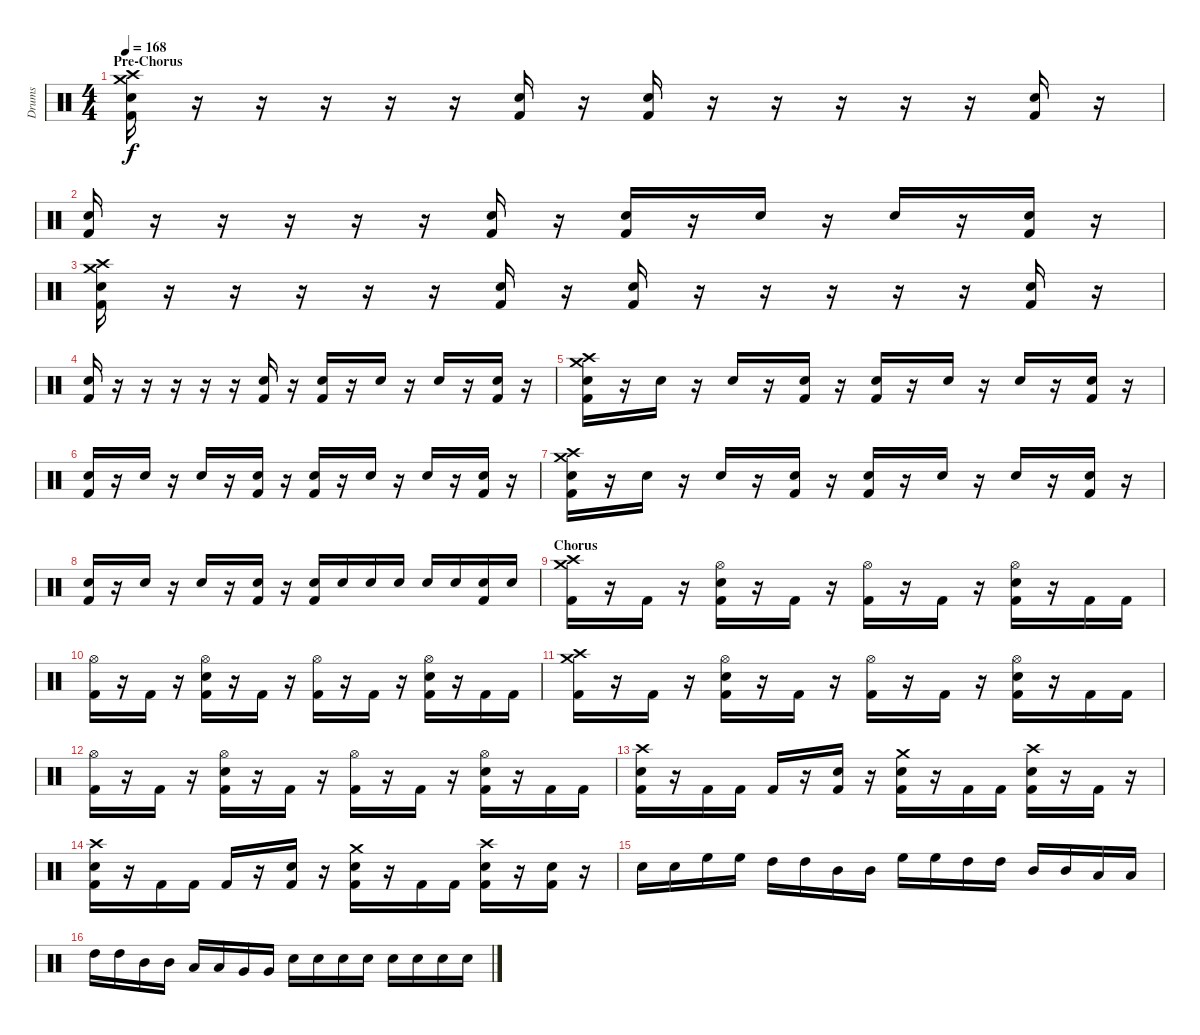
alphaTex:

\track ("Drums" "Drums") {instrument percussion}
\staff {score}
\articulation defaults
\ts (4 4)
\section ("" "Pre-Chorus")
\tempo 168
\clef neutral
\ks c
("Crash medium (hit)" "Crash high (hit)" "Snare (hit) 2" "Kick (hit) 2").16{dy f} r.16 r.16 r.16 r.16 r.16 ("Snare (hit) 2" "Kick (hit) 2").16 r.16 ("Snare (hit) 2" "Kick (hit) 2").16 r.16 r.16 r.16 r.16 r.16 ("Snare (hit) 2" "Kick (hit) 2").16 r.16 |
("Snare (hit) 2" "Kick (hit) 2").16 r.16 r.16 r.16 r.16 r.16 ("Snare (hit) 2" "Kick (hit) 2").16 r.16 ("Snare (hit) 2" "Kick (hit) 2").16 r.16 "Snare (hit) 2".16 r.16 "Snare (hit) 2".16 r.16 ("Snare (hit) 2" "Kick (hit) 2").16 r.16 |
("Crash medium (hit)" "Crash high (hit)" "Snare (hit) 2" "Kick (hit) 2").16 r.16 r.16 r.16 r.16 r.16 ("Snare (hit) 2" "Kick (hit) 2").16 r.16 ("Snare (hit) 2" "Kick (hit) 2").16 r.16 r.16 r.16 r.16 r.16 ("Snare (hit) 2" "Kick (hit) 2").16 r.16 |
("Snare (hit) 2" "Kick (hit) 2").16 r.16 r.16 r.16 r.16 r.16 ("Snare (hit) 2" "Kick (hit) 2").16 r.16 ("Snare (hit) 2" "Kick (hit) 2").16 r.16 "Snare (hit) 2".16 r.16 "Snare (hit) 2".16 r.16 ("Snare (hit) 2" "Kick (hit) 2").16 r.16 |
("Crash medium (hit)" "Crash high (hit)" "Snare (hit) 2" "Kick (hit) 2").16 r.16 "Snare (hit) 2".16 r.16 "Snare (hit) 2".16 r.16 ("Snare (hit) 2" "Kick (hit) 2").16 r.16 ("Snare (hit) 2" "Kick (hit) 2").16 r.16 "Snare (hit) 2".16 r.16 "Snare (hit) 2".16 r.16 ("Snare (hit) 2" "Kick (hit) 2").16 r.16 |
("Snare (hit) 2" "Kick (hit) 2").16 r.16 "Snare (hit) 2".16 r.16 "Snare (hit) 2".16 r.16 ("Snare (hit) 2" "Kick (hit) 2").16 r.16 ("Snare (hit) 2" "Kick (hit) 2").16 r.16 "Snare (hit) 2".16 r.16 "Snare (hit) 2".16 r.16 ("Snare (hit) 2" "Kick (hit) 2").16 r.16 |
("Crash medium (hit)" "Crash high (hit)" "Snare (hit) 2" "Kick (hit) 2").16 r.16 "Snare (hit) 2".16 r.16 "Snare (hit) 2".16 r.16 ("Snare (hit) 2" "Kick (hit) 2").16 r.16 ("Snare (hit) 2" "Kick (hit) 2").16 r.16 "Snare (hit) 2".16 r.16 "Snare (hit) 2".16 r.16 ("Snare (hit) 2" "Kick (hit) 2").16 r.16 |
("Snare (hit) 2" "Kick (hit) 2").16 r.16 "Snare (hit) 2".16 r.16 "Snare (hit) 2".16 r.16 ("Snare (hit) 2" "Kick (hit) 2").16 r.16 ("Snare (hit) 2" "Kick (hit) 2").16 "Snare (hit) 2".16 "Snare (hit) 2".16 "Snare (hit) 2".16 "Snare (hit) 2".16 "Snare (hit) 2".16 ("Snare (hit) 2" "Kick (hit) 2").16 "Snare (hit) 2".16 |
\section ("" "Chorus")
("Crash medium (hit)" "Crash high (hit)" "Kick (hit) 2").16 r.16 "Kick (hit) 2".16 r.16 ("Hi-Hat (open)" "Snare (hit) 2" "Kick (hit) 2").16 r.16 "Kick (hit) 2".16 r.16 ("Hi-Hat (open)" "Kick (hit) 2").16 r.16 "Kick (hit) 2".16 r.16 ("Hi-Hat (open)" "Snare (hit) 2" "Kick (hit) 2").16 r.16 "Kick (hit) 2".16 "Kick (hit) 2".16 |
("Hi-Hat (open)" "Kick (hit) 2").16 r.16 "Kick (hit) 2".16 r.16 ("Hi-Hat (open)" "Snare (hit) 2" "Kick (hit) 2").16 r.16 "Kick (hit) 2".16 r.16 ("Hi-Hat (open)" "Kick (hit) 2").16 r.16 "Kick (hit) 2".16 r.16 ("Hi-Hat (open)" "Snare (hit) 2" "Kick (hit) 2").16 r.16 "Kick (hit) 2".16 "Kick (hit) 2".16 |
("Crash medium (hit)" "Crash high (hit)" "Kick (hit) 2").16 r.16 "Kick (hit) 2".16 r.16 ("Hi-Hat (open)" "Snare (hit) 2" "Kick (hit) 2").16 r.16 "Kick (hit) 2".16 r.16 ("Hi-Hat (open)" "Kick (hit) 2").16 r.16 "Kick (hit) 2".16 r.16 ("Hi-Hat (open)" "Snare (hit) 2" "Kick (hit) 2").16 r.16 "Kick (hit) 2".16 "Kick (hit) 2".16 |
("Hi-Hat (open)" "Kick (hit) 2").16 r.16 "Kick (hit) 2".16 r.16 ("Hi-Hat (open)" "Snare (hit) 2" "Kick (hit) 2").16 r.16 "Kick (hit) 2".16 r.16 ("Hi-Hat (open)" "Kick (hit) 2").16 r.16 "Kick (hit) 2".16 r.16 ("Hi-Hat (open)" "Snare (hit) 2" "Kick (hit) 2").16 r.16 "Kick (hit) 2".16 "Kick (hit) 2".16 |
("Crash high (hit)" "Snare (hit) 2" "Kick (hit) 2").16 r.16 "Kick (hit) 2".16 "Kick (hit) 2".16 "Kick (hit) 2".16 r.16 ("Snare (hit) 2" "Kick (hit) 2").16 r.16 ("Crash medium (hit)" "Snare (hit) 2" "Kick (hit) 2").16 r.16 "Kick (hit) 2".16 "Kick (hit) 2".16 ("Crash high (hit)" "Snare (hit) 2" "Kick (hit) 2").16 r.16 "Kick (hit) 2".16 r.16 |
("Crash high (hit)" "Snare (hit) 2" "Kick (hit) 2").16 r.16 "Kick (hit) 2".16 "Kick (hit) 2".16 "Kick (hit) 2".16 r.16 ("Snare (hit) 2" "Kick (hit) 2").16 r.16 ("Crash medium (hit)" "Snare (hit) 2" "Kick (hit) 2").16 r.16 "Kick (hit) 2".16 "Kick (hit) 2".16 ("Crash high (hit)" "Snare (hit) 2" "Kick (hit) 2").16 r.16 ("Snare (hit) 2" "Kick (hit) 2").16 r.16 |
"Snare (hit) 2".16 "Snare (hit) 2".16 "High Floor Tom (hit)".16 "High Floor Tom (hit)".16 "High Tom (hit)".16 "High Tom (hit)".16 "Mid Tom (hit)".16 "Mid Tom (hit)".16 "High Floor Tom (hit)".16 "High Floor Tom (hit)".16 "High Tom (hit)".16 "High Tom (hit)".16 "Mid Tom (hit)".16 "Mid Tom (hit)".16 "Low Tom (hit)".16 "Low Tom (hit)".16 |
"High Tom (hit)".16 "High Tom (hit)".16 "Mid Tom (hit)".16 "Mid Tom (hit)".16 "Low Tom (hit)".16 "Low Tom (hit)".16 "Very Low Tom (hit)".16 "Very Low Tom (hit)".16 "Snare (hit) 2".16 "Snare (hit) 2".16 "Snare (hit) 2".16 "Snare (hit) 2".16 "Snare (hit) 2".16 "Snare (hit) 2".16 "Snare (hit) 2".16 "Snare (hit) 2".16
